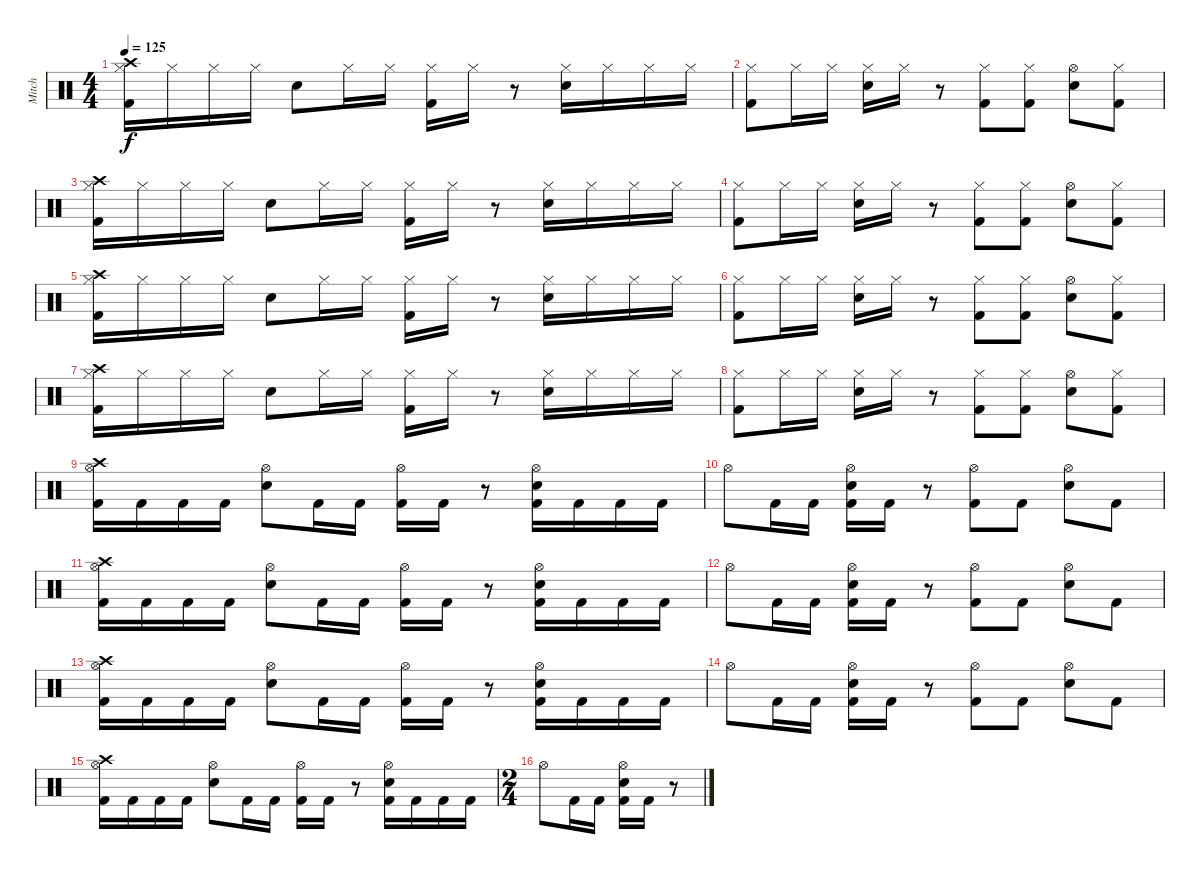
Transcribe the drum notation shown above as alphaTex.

\track ("Mitch" "Mitch") {instrument percussion}
\staff {score}
\articulation defaults
\ts (4 4)
\tempo 125
\clef neutral
\ks c
("Crash high (hit)" "Kick (hit) 2" "Hi-Hat (closed)").16{dy f} "Hi-Hat (closed)".16 "Hi-Hat (closed)".16 "Hi-Hat (closed)".16 "Snare (hit) 2".8 "Hi-Hat (closed)".16 "Hi-Hat (closed)".16 ("Kick (hit) 2" "Hi-Hat (closed)").16 "Hi-Hat (closed)".16 r.8 ("Snare (hit) 2" "Hi-Hat (closed)").16 "Hi-Hat (closed)".16 "Hi-Hat (closed)".16 "Hi-Hat (closed)".16 |
("Kick (hit) 2" "Hi-Hat (closed)").8 "Hi-Hat (closed)".16 "Hi-Hat (closed)".16 ("Snare (hit) 2" "Hi-Hat (closed)").16 "Hi-Hat (closed)".16 r.8 ("Kick (hit) 2" "Hi-Hat (closed)").8 ("Kick (hit) 2" "Hi-Hat (closed)").8 ("Snare (hit) 2" "Hi-Hat (open)").8 ("Kick (hit) 2" "Hi-Hat (closed)").8 |
("Crash high (hit)" "Kick (hit) 2" "Hi-Hat (closed)").16 "Hi-Hat (closed)".16 "Hi-Hat (closed)".16 "Hi-Hat (closed)".16 "Snare (hit) 2".8 "Hi-Hat (closed)".16 "Hi-Hat (closed)".16 ("Kick (hit) 2" "Hi-Hat (closed)").16 "Hi-Hat (closed)".16 r.8 ("Snare (hit) 2" "Hi-Hat (closed)").16 "Hi-Hat (closed)".16 "Hi-Hat (closed)".16 "Hi-Hat (closed)".16 |
("Kick (hit) 2" "Hi-Hat (closed)").8 "Hi-Hat (closed)".16 "Hi-Hat (closed)".16 ("Snare (hit) 2" "Hi-Hat (closed)").16 "Hi-Hat (closed)".16 r.8 ("Kick (hit) 2" "Hi-Hat (closed)").8 ("Kick (hit) 2" "Hi-Hat (closed)").8 ("Snare (hit) 2" "Hi-Hat (open)").8 ("Kick (hit) 2" "Hi-Hat (closed)").8 |
("Crash high (hit)" "Kick (hit) 2" "Hi-Hat (closed)").16 "Hi-Hat (closed)".16 "Hi-Hat (closed)".16 "Hi-Hat (closed)".16 "Snare (hit) 2".8 "Hi-Hat (closed)".16 "Hi-Hat (closed)".16 ("Kick (hit) 2" "Hi-Hat (closed)").16 "Hi-Hat (closed)".16 r.8 ("Snare (hit) 2" "Hi-Hat (closed)").16 "Hi-Hat (closed)".16 "Hi-Hat (closed)".16 "Hi-Hat (closed)".16 |
("Kick (hit) 2" "Hi-Hat (closed)").8 "Hi-Hat (closed)".16 "Hi-Hat (closed)".16 ("Snare (hit) 2" "Hi-Hat (closed)").16 "Hi-Hat (closed)".16 r.8 ("Kick (hit) 2" "Hi-Hat (closed)").8 ("Kick (hit) 2" "Hi-Hat (closed)").8 ("Snare (hit) 2" "Hi-Hat (open)").8 ("Kick (hit) 2" "Hi-Hat (closed)").8 |
("Crash high (hit)" "Kick (hit) 2" "Hi-Hat (closed)").16 "Hi-Hat (closed)".16 "Hi-Hat (closed)".16 "Hi-Hat (closed)".16 "Snare (hit) 2".8 "Hi-Hat (closed)".16 "Hi-Hat (closed)".16 ("Kick (hit) 2" "Hi-Hat (closed)").16 "Hi-Hat (closed)".16 r.8 ("Snare (hit) 2" "Hi-Hat (closed)").16 "Hi-Hat (closed)".16 "Hi-Hat (closed)".16 "Hi-Hat (closed)".16 |
("Kick (hit) 2" "Hi-Hat (closed)").8 "Hi-Hat (closed)".16 "Hi-Hat (closed)".16 ("Snare (hit) 2" "Hi-Hat (closed)").16 "Hi-Hat (closed)".16 r.8 ("Kick (hit) 2" "Hi-Hat (closed)").8 ("Kick (hit) 2" "Hi-Hat (closed)").8 ("Snare (hit) 2" "Hi-Hat (open)").8 ("Kick (hit) 2" "Hi-Hat (closed)").8 |
("Crash high (hit)" "Kick (hit) 2" "Hi-Hat (open)").16 "Kick (hit) 2".16 "Kick (hit) 2".16 "Kick (hit) 2".16 ("Snare (hit) 2" "Hi-Hat (open)").8 "Kick (hit) 2".16 "Kick (hit) 2".16 ("Kick (hit) 2" "Hi-Hat (open)").16 "Kick (hit) 2".16 r.8 ("Snare (hit) 2" "Kick (hit) 2" "Hi-Hat (open)").16 "Kick (hit) 2".16 "Kick (hit) 2".16 "Kick (hit) 2".16 |
"Hi-Hat (open)".8 "Kick (hit) 2".16 "Kick (hit) 2".16 ("Snare (hit) 2" "Kick (hit) 2" "Hi-Hat (open)").16 "Kick (hit) 2".16 r.8 ("Kick (hit) 2" "Hi-Hat (open)").8 "Kick (hit) 2".8 ("Snare (hit) 2" "Hi-Hat (open)").8 "Kick (hit) 2".8 |
("Crash high (hit)" "Kick (hit) 2" "Hi-Hat (open)").16 "Kick (hit) 2".16 "Kick (hit) 2".16 "Kick (hit) 2".16 ("Snare (hit) 2" "Hi-Hat (open)").8 "Kick (hit) 2".16 "Kick (hit) 2".16 ("Kick (hit) 2" "Hi-Hat (open)").16 "Kick (hit) 2".16 r.8 ("Snare (hit) 2" "Kick (hit) 2" "Hi-Hat (open)").16 "Kick (hit) 2".16 "Kick (hit) 2".16 "Kick (hit) 2".16 |
"Hi-Hat (open)".8 "Kick (hit) 2".16 "Kick (hit) 2".16 ("Snare (hit) 2" "Kick (hit) 2" "Hi-Hat (open)").16 "Kick (hit) 2".16 r.8 ("Kick (hit) 2" "Hi-Hat (open)").8 "Kick (hit) 2".8 ("Snare (hit) 2" "Hi-Hat (open)").8 "Kick (hit) 2".8 |
("Crash high (hit)" "Kick (hit) 2" "Hi-Hat (open)").16 "Kick (hit) 2".16 "Kick (hit) 2".16 "Kick (hit) 2".16 ("Snare (hit) 2" "Hi-Hat (open)").8 "Kick (hit) 2".16 "Kick (hit) 2".16 ("Kick (hit) 2" "Hi-Hat (open)").16 "Kick (hit) 2".16 r.8 ("Snare (hit) 2" "Kick (hit) 2" "Hi-Hat (open)").16 "Kick (hit) 2".16 "Kick (hit) 2".16 "Kick (hit) 2".16 |
"Hi-Hat (open)".8 "Kick (hit) 2".16 "Kick (hit) 2".16 ("Snare (hit) 2" "Kick (hit) 2" "Hi-Hat (open)").16 "Kick (hit) 2".16 r.8 ("Kick (hit) 2" "Hi-Hat (open)").8 "Kick (hit) 2".8 ("Snare (hit) 2" "Hi-Hat (open)").8 "Kick (hit) 2".8 |
("Crash high (hit)" "Kick (hit) 2" "Hi-Hat (open)").16 "Kick (hit) 2".16 "Kick (hit) 2".16 "Kick (hit) 2".16 ("Snare (hit) 2" "Hi-Hat (open)").8 "Kick (hit) 2".16 "Kick (hit) 2".16 ("Kick (hit) 2" "Hi-Hat (open)").16 "Kick (hit) 2".16 r.8 ("Snare (hit) 2" "Kick (hit) 2" "Hi-Hat (open)").16 "Kick (hit) 2".16 "Kick (hit) 2".16 "Kick (hit) 2".16 |
\ts (2 4)
"Hi-Hat (open)".8 "Kick (hit) 2".16 "Kick (hit) 2".16 ("Snare (hit) 2" "Kick (hit) 2" "Hi-Hat (open)").16 "Kick (hit) 2".16 r.8
